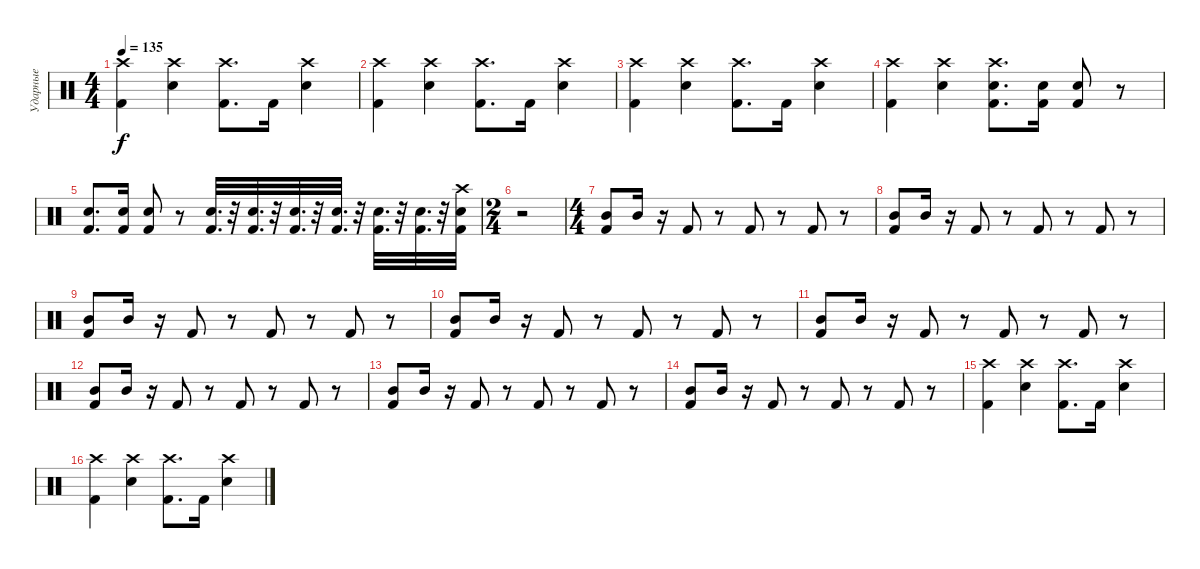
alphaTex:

\track ("Ударные" "Ударные") {instrument percussion}
\staff {score}
\articulation defaults
\ts (4 4)
\tempo 135
\clef neutral
\ks c
("Crash high (hit)" "Kick (hit) 2").4{dy f} ("Crash high (hit)" "Electric Snare (hit)").4 ("Crash high (hit)" "Kick (hit) 2").8{d} "Kick (hit) 2".16 ("Crash high (hit)" "Electric Snare (hit)").4 |
("Crash high (hit)" "Kick (hit) 2").4 ("Crash high (hit)" "Electric Snare (hit)").4 ("Crash high (hit)" "Kick (hit) 2").8{d} "Kick (hit) 2".16 ("Crash high (hit)" "Electric Snare (hit)").4 |
("Crash high (hit)" "Kick (hit) 2").4 ("Crash high (hit)" "Electric Snare (hit)").4 ("Crash high (hit)" "Kick (hit) 2").8{d} "Kick (hit) 2".16 ("Crash high (hit)" "Electric Snare (hit)").4 |
("Crash high (hit)" "Kick (hit) 2").4 ("Crash high (hit)" "Electric Snare (hit)").4 ("Crash high (hit)" "Electric Snare (hit)" "Kick (hit) 2").8{d} ("Electric Snare (hit)" "Kick (hit) 2").16 ("Electric Snare (hit)" "Kick (hit) 2").8 r.8 |
("Electric Snare (hit)" "Kick (hit) 2").8{d} ("Electric Snare (hit)" "Kick (hit) 2").16 ("Electric Snare (hit)" "Kick (hit) 2").8 r.8 ("Electric Snare (hit)" "Kick (hit) 2").32{d} r.32 ("Electric Snare (hit)" "Kick (hit) 2").32{d} r.32 ("Electric Snare (hit)" "Kick (hit) 2").32{d} r.32 ("Electric Snare (hit)" "Kick (hit) 2").32{d} r.32 ("Electric Snare (hit)" "Kick (hit) 2").32{d} r.32 ("Electric Snare (hit)" "Kick (hit) 2").32{d} r.32 ("Crash high (hit)" "Electric Snare (hit)" "Kick (hit) 2").32 |
\ts (2 4)
r.2 |
\ts (4 4)
("Kick (hit) 2" "Mid Tom (hit)").8 "Mid Tom (hit)".16 r.16 "Kick (hit) 2".8 r.8 "Kick (hit) 2".8 r.8 "Kick (hit) 2".8 r.8 |
("Kick (hit) 2" "Mid Tom (hit)").8 "Mid Tom (hit)".16 r.16 "Kick (hit) 2".8 r.8 "Kick (hit) 2".8 r.8 "Kick (hit) 2".8 r.8 |
("Kick (hit) 2" "Mid Tom (hit)").8 "Mid Tom (hit)".16 r.16 "Kick (hit) 2".8 r.8 "Kick (hit) 2".8 r.8 "Kick (hit) 2".8 r.8 |
("Kick (hit) 2" "Mid Tom (hit)").8 "Mid Tom (hit)".16 r.16 "Kick (hit) 2".8 r.8 "Kick (hit) 2".8 r.8 "Kick (hit) 2".8 r.8 |
("Kick (hit) 2" "Mid Tom (hit)").8 "Mid Tom (hit)".16 r.16 "Kick (hit) 2".8 r.8 "Kick (hit) 2".8 r.8 "Kick (hit) 2".8 r.8 |
("Kick (hit) 2" "Mid Tom (hit)").8 "Mid Tom (hit)".16 r.16 "Kick (hit) 2".8 r.8 "Kick (hit) 2".8 r.8 "Kick (hit) 2".8 r.8 |
("Kick (hit) 2" "Mid Tom (hit)").8 "Mid Tom (hit)".16 r.16 "Kick (hit) 2".8 r.8 "Kick (hit) 2".8 r.8 "Kick (hit) 2".8 r.8 |
("Kick (hit) 2" "Mid Tom (hit)").8 "Mid Tom (hit)".16 r.16 "Kick (hit) 2".8 r.8 "Kick (hit) 2".8 r.8 "Kick (hit) 2".8 r.8 |
("Crash high (hit)" "Kick (hit) 2").4 ("Crash high (hit)" "Electric Snare (hit)").4 ("Crash high (hit)" "Kick (hit) 2").8{d} "Kick (hit) 2".16 ("Crash high (hit)" "Electric Snare (hit)").4 |
("Crash high (hit)" "Kick (hit) 2").4 ("Crash high (hit)" "Electric Snare (hit)").4 ("Crash high (hit)" "Kick (hit) 2").8{d} "Kick (hit) 2".16 ("Crash high (hit)" "Electric Snare (hit)").4
